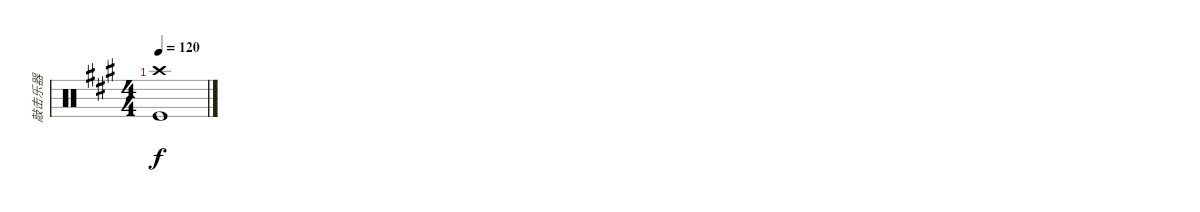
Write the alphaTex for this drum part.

\track ("敲击乐器" "敲击乐器") {instrument percussion}
\staff {score}
\articulation defaults
\ts (4 4)
\tempo 120
\clef neutral
\ks a
("Crash high (hit)" "Kick (hit)").1{dy f}
